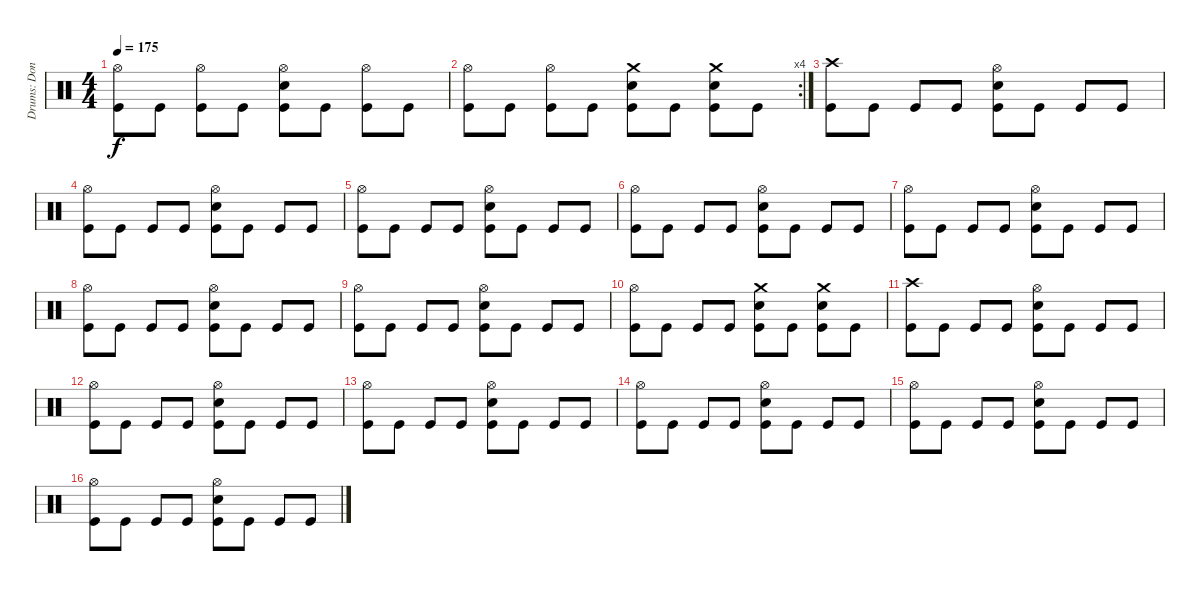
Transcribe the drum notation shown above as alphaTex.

\track ("Drums: Donald Tardy" "Drums: Don") {instrument percussion}
\staff {score}
\articulation defaults
\ts (4 4)
\tempo 175
\clef neutral
\ks c
("Hi-Hat (open)" "Kick (hit)").8{dy f} "Kick (hit)".8 ("Hi-Hat (open)" "Kick (hit)").8 "Kick (hit)".8 ("Hi-Hat (open)" "Snare (hit) 2" "Kick (hit)").8 "Kick (hit)".8 ("Hi-Hat (open)" "Kick (hit)").8 "Kick (hit)".8 |
\rc 4
("Hi-Hat (open)" "Kick (hit)").8 "Kick (hit)".8 ("Hi-Hat (open)" "Kick (hit)").8 "Kick (hit)".8 ("Crash medium (hit)" "Snare (hit) 2" "Kick (hit)").8 "Kick (hit)".8 ("Crash medium (hit)" "Snare (hit) 2" "Kick (hit)").8 "Kick (hit)".8 |
("Crash high (hit)" "Kick (hit)").8 "Kick (hit)".8 "Kick (hit)".8 "Kick (hit)".8 ("Hi-Hat (open)" "Snare (hit) 2" "Kick (hit)").8 "Kick (hit)".8 "Kick (hit)".8 "Kick (hit)".8 |
("Hi-Hat (open)" "Kick (hit)").8 "Kick (hit)".8 "Kick (hit)".8 "Kick (hit)".8 ("Hi-Hat (open)" "Snare (hit) 2" "Kick (hit)").8 "Kick (hit)".8 "Kick (hit)".8 "Kick (hit)".8 |
("Hi-Hat (open)" "Kick (hit)").8 "Kick (hit)".8 "Kick (hit)".8 "Kick (hit)".8 ("Hi-Hat (open)" "Snare (hit) 2" "Kick (hit)").8 "Kick (hit)".8 "Kick (hit)".8 "Kick (hit)".8 |
("Hi-Hat (open)" "Kick (hit)").8 "Kick (hit)".8 "Kick (hit)".8 "Kick (hit)".8 ("Hi-Hat (open)" "Snare (hit) 2" "Kick (hit)").8 "Kick (hit)".8 "Kick (hit)".8 "Kick (hit)".8 |
("Hi-Hat (open)" "Kick (hit)").8 "Kick (hit)".8 "Kick (hit)".8 "Kick (hit)".8 ("Hi-Hat (open)" "Snare (hit) 2" "Kick (hit)").8 "Kick (hit)".8 "Kick (hit)".8 "Kick (hit)".8 |
("Hi-Hat (open)" "Kick (hit)").8 "Kick (hit)".8 "Kick (hit)".8 "Kick (hit)".8 ("Hi-Hat (open)" "Snare (hit) 2" "Kick (hit)").8 "Kick (hit)".8 "Kick (hit)".8 "Kick (hit)".8 |
("Hi-Hat (open)" "Kick (hit)").8 "Kick (hit)".8 "Kick (hit)".8 "Kick (hit)".8 ("Hi-Hat (open)" "Snare (hit) 2" "Kick (hit)").8 "Kick (hit)".8 "Kick (hit)".8 "Kick (hit)".8 |
("Hi-Hat (open)" "Kick (hit)").8 "Kick (hit)".8 "Kick (hit)".8 "Kick (hit)".8 ("Crash medium (hit)" "Snare (hit) 2" "Kick (hit)").8 "Kick (hit)".8 ("Crash medium (hit)" "Snare (hit) 2" "Kick (hit)").8 "Kick (hit)".8 |
("Crash high (hit)" "Kick (hit)").8 "Kick (hit)".8 "Kick (hit)".8 "Kick (hit)".8 ("Hi-Hat (open)" "Snare (hit) 2" "Kick (hit)").8 "Kick (hit)".8 "Kick (hit)".8 "Kick (hit)".8 |
("Hi-Hat (open)" "Kick (hit)").8 "Kick (hit)".8 "Kick (hit)".8 "Kick (hit)".8 ("Hi-Hat (open)" "Snare (hit) 2" "Kick (hit)").8 "Kick (hit)".8 "Kick (hit)".8 "Kick (hit)".8 |
("Hi-Hat (open)" "Kick (hit)").8 "Kick (hit)".8 "Kick (hit)".8 "Kick (hit)".8 ("Hi-Hat (open)" "Snare (hit) 2" "Kick (hit)").8 "Kick (hit)".8 "Kick (hit)".8 "Kick (hit)".8 |
("Hi-Hat (open)" "Kick (hit)").8 "Kick (hit)".8 "Kick (hit)".8 "Kick (hit)".8 ("Hi-Hat (open)" "Snare (hit) 2" "Kick (hit)").8 "Kick (hit)".8 "Kick (hit)".8 "Kick (hit)".8 |
("Hi-Hat (open)" "Kick (hit)").8 "Kick (hit)".8 "Kick (hit)".8 "Kick (hit)".8 ("Hi-Hat (open)" "Snare (hit) 2" "Kick (hit)").8 "Kick (hit)".8 "Kick (hit)".8 "Kick (hit)".8 |
("Hi-Hat (open)" "Kick (hit)").8 "Kick (hit)".8 "Kick (hit)".8 "Kick (hit)".8 ("Hi-Hat (open)" "Snare (hit) 2" "Kick (hit)").8 "Kick (hit)".8 "Kick (hit)".8 "Kick (hit)".8
